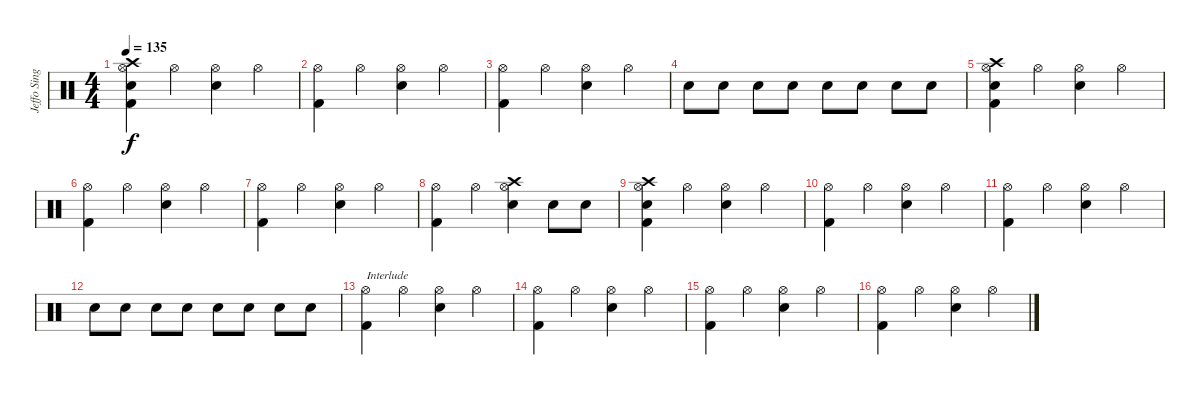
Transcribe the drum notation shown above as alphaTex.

\track ("Jeffo Singer" "Jeffo Sing") {instrument percussion}
\staff {score}
\articulation defaults
\ts (4 4)
\tempo 135
\clef neutral
\ks c
("Hi-Hat (open)" "Kick (hit) 2" "Snare (hit) 2" "Crash high (hit)").4{dy f} "Hi-Hat (open)".4 ("Hi-Hat (open)" "Snare (hit) 2").4 "Hi-Hat (open)".4 |
("Hi-Hat (open)" "Kick (hit) 2").4 "Hi-Hat (open)".4 ("Hi-Hat (open)" "Snare (hit) 2").4 "Hi-Hat (open)".4 |
("Hi-Hat (open)" "Kick (hit) 2").4 "Hi-Hat (open)".4 ("Hi-Hat (open)" "Snare (hit) 2").4 "Hi-Hat (open)".4 |
"Snare (hit) 2".8 "Snare (hit) 2".8 "Snare (hit) 2".8 "Snare (hit) 2".8 "Snare (hit) 2".8 "Snare (hit) 2".8 "Snare (hit) 2".8 "Snare (hit) 2".8 |
("Hi-Hat (open)" "Kick (hit) 2" "Snare (hit) 2" "Crash high (hit)").4 "Hi-Hat (open)".4 ("Hi-Hat (open)" "Snare (hit) 2").4 "Hi-Hat (open)".4 |
("Hi-Hat (open)" "Kick (hit) 2").4 "Hi-Hat (open)".4 ("Hi-Hat (open)" "Snare (hit) 2").4 "Hi-Hat (open)".4 |
("Hi-Hat (open)" "Kick (hit) 2").4 "Hi-Hat (open)".4 ("Hi-Hat (open)" "Snare (hit) 2").4 "Hi-Hat (open)".4 |
("Hi-Hat (open)" "Kick (hit) 2").4 "Hi-Hat (open)".4 ("Hi-Hat (open)" "Snare (hit) 2" "Crash high (hit)").4 "Snare (hit) 2".8 "Snare (hit) 2".8 |
("Hi-Hat (open)" "Kick (hit) 2" "Snare (hit) 2" "Crash high (hit)").4 "Hi-Hat (open)".4 ("Hi-Hat (open)" "Snare (hit) 2").4 "Hi-Hat (open)".4 |
("Hi-Hat (open)" "Kick (hit) 2").4 "Hi-Hat (open)".4 ("Hi-Hat (open)" "Snare (hit) 2").4 "Hi-Hat (open)".4 |
("Hi-Hat (open)" "Kick (hit) 2").4 "Hi-Hat (open)".4 ("Hi-Hat (open)" "Snare (hit) 2").4 "Hi-Hat (open)".4 |
"Snare (hit) 2".8 "Snare (hit) 2".8 "Snare (hit) 2".8 "Snare (hit) 2".8 "Snare (hit) 2".8 "Snare (hit) 2".8 "Snare (hit) 2".8 "Snare (hit) 2".8 |
("Hi-Hat (open)" "Kick (hit) 2").4{txt "Interlude"} "Hi-Hat (open)".4 ("Hi-Hat (open)" "Snare (hit) 2").4 "Hi-Hat (open)".4 |
("Hi-Hat (open)" "Kick (hit) 2").4 "Hi-Hat (open)".4 ("Hi-Hat (open)" "Snare (hit) 2").4 "Hi-Hat (open)".4 |
("Hi-Hat (open)" "Kick (hit) 2").4 "Hi-Hat (open)".4 ("Hi-Hat (open)" "Snare (hit) 2").4 "Hi-Hat (open)".4 |
("Hi-Hat (open)" "Kick (hit) 2").4 "Hi-Hat (open)".4 ("Hi-Hat (open)" "Snare (hit) 2").4 "Hi-Hat (open)".4
